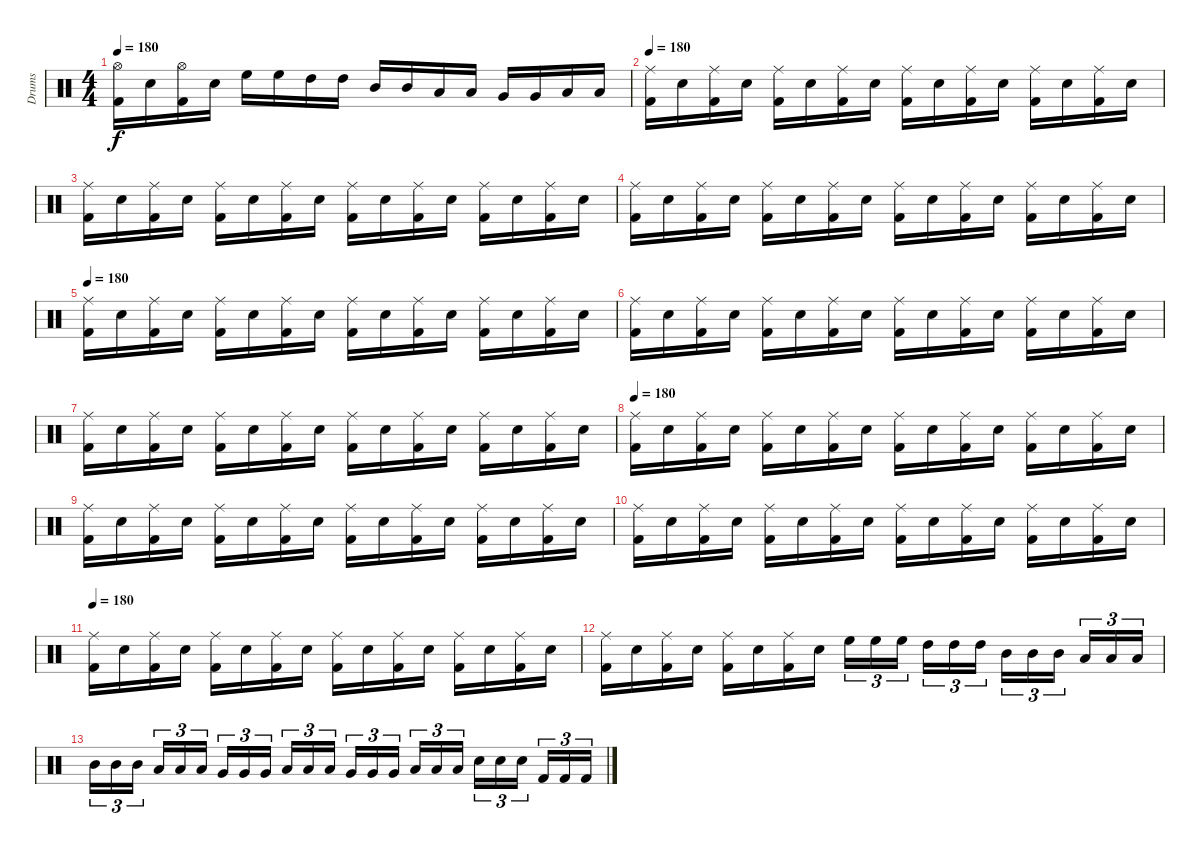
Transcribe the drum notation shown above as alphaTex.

\track ("Drums" "Drums") {instrument percussion}
\staff {score}
\articulation defaults
\ts (4 4)
\tempo 180
\clef neutral
\ks c
("Hi-Hat (open)" "Kick (hit) 2").16{dy f} "Electric Snare (hit)".16 ("Hi-Hat (open)" "Kick (hit) 2").16 "Electric Snare (hit)".16 "High Floor Tom (hit)".16 "High Floor Tom (hit)".16 "High Tom (hit)".16 "High Tom (hit)".16 "Mid Tom (hit)".16 "Mid Tom (hit)".16 "Low Tom (hit)".16 "Low Tom (hit)".16 "Very Low Tom (hit)".16 "Very Low Tom (hit)".16 "Low Floor Tom (hit)".16 "Low Floor Tom (hit)".16 |
\tempo 180
("Ride (middle)" "Kick (hit) 2").16 "Electric Snare (hit)".16 ("Ride (middle)" "Kick (hit) 2").16 "Electric Snare (hit)".16 ("Ride (middle)" "Kick (hit) 2").16 "Electric Snare (hit)".16 ("Ride (middle)" "Kick (hit) 2").16 "Electric Snare (hit)".16 ("Ride (middle)" "Kick (hit) 2").16 "Electric Snare (hit)".16 ("Ride (middle)" "Kick (hit) 2").16 "Electric Snare (hit)".16 ("Ride (middle)" "Kick (hit) 2").16 "Electric Snare (hit)".16 ("Ride (middle)" "Kick (hit) 2").16 "Electric Snare (hit)".16 |
("Ride (middle)" "Kick (hit) 2").16 "Electric Snare (hit)".16 ("Ride (middle)" "Kick (hit) 2").16 "Electric Snare (hit)".16 ("Ride (middle)" "Kick (hit) 2").16 "Electric Snare (hit)".16 ("Ride (middle)" "Kick (hit) 2").16 "Electric Snare (hit)".16 ("Ride (middle)" "Kick (hit) 2").16 "Electric Snare (hit)".16 ("Ride (middle)" "Kick (hit) 2").16 "Electric Snare (hit)".16 ("Ride (middle)" "Kick (hit) 2").16 "Electric Snare (hit)".16 ("Ride (middle)" "Kick (hit) 2").16 "Electric Snare (hit)".16 |
("Ride (middle)" "Kick (hit) 2").16 "Electric Snare (hit)".16 ("Ride (middle)" "Kick (hit) 2").16 "Electric Snare (hit)".16 ("Ride (middle)" "Kick (hit) 2").16 "Electric Snare (hit)".16 ("Ride (middle)" "Kick (hit) 2").16 "Electric Snare (hit)".16 ("Ride (middle)" "Kick (hit) 2").16 "Electric Snare (hit)".16 ("Ride (middle)" "Kick (hit) 2").16 "Electric Snare (hit)".16 ("Ride (middle)" "Kick (hit) 2").16 "Electric Snare (hit)".16 ("Ride (middle)" "Kick (hit) 2").16 "Electric Snare (hit)".16 |
\tempo 180
("Ride (middle)" "Kick (hit) 2").16 "Electric Snare (hit)".16 ("Ride (middle)" "Kick (hit) 2").16 "Electric Snare (hit)".16 ("Ride (middle)" "Kick (hit) 2").16 "Electric Snare (hit)".16 ("Ride (middle)" "Kick (hit) 2").16 "Electric Snare (hit)".16 ("Ride (middle)" "Kick (hit) 2").16 "Electric Snare (hit)".16 ("Ride (middle)" "Kick (hit) 2").16 "Electric Snare (hit)".16 ("Ride (middle)" "Kick (hit) 2").16 "Electric Snare (hit)".16 ("Ride (middle)" "Kick (hit) 2").16 "Electric Snare (hit)".16 |
("Ride (middle)" "Kick (hit) 2").16 "Electric Snare (hit)".16 ("Ride (middle)" "Kick (hit) 2").16 "Electric Snare (hit)".16 ("Ride (middle)" "Kick (hit) 2").16 "Electric Snare (hit)".16 ("Ride (middle)" "Kick (hit) 2").16 "Electric Snare (hit)".16 ("Ride (middle)" "Kick (hit) 2").16 "Electric Snare (hit)".16 ("Ride (middle)" "Kick (hit) 2").16 "Electric Snare (hit)".16 ("Ride (middle)" "Kick (hit) 2").16 "Electric Snare (hit)".16 ("Ride (middle)" "Kick (hit) 2").16 "Electric Snare (hit)".16 |
("Ride (middle)" "Kick (hit) 2").16 "Electric Snare (hit)".16 ("Ride (middle)" "Kick (hit) 2").16 "Electric Snare (hit)".16 ("Ride (middle)" "Kick (hit) 2").16 "Electric Snare (hit)".16 ("Ride (middle)" "Kick (hit) 2").16 "Electric Snare (hit)".16 ("Ride (middle)" "Kick (hit) 2").16 "Electric Snare (hit)".16 ("Ride (middle)" "Kick (hit) 2").16 "Electric Snare (hit)".16 ("Ride (middle)" "Kick (hit) 2").16 "Electric Snare (hit)".16 ("Ride (middle)" "Kick (hit) 2").16 "Electric Snare (hit)".16 |
\tempo 180
("Ride (middle)" "Kick (hit) 2").16 "Electric Snare (hit)".16 ("Ride (middle)" "Kick (hit) 2").16 "Electric Snare (hit)".16 ("Ride (middle)" "Kick (hit) 2").16 "Electric Snare (hit)".16 ("Ride (middle)" "Kick (hit) 2").16 "Electric Snare (hit)".16 ("Ride (middle)" "Kick (hit) 2").16 "Electric Snare (hit)".16 ("Ride (middle)" "Kick (hit) 2").16 "Electric Snare (hit)".16 ("Ride (middle)" "Kick (hit) 2").16 "Electric Snare (hit)".16 ("Ride (middle)" "Kick (hit) 2").16 "Electric Snare (hit)".16 |
("Ride (middle)" "Kick (hit) 2").16 "Electric Snare (hit)".16 ("Ride (middle)" "Kick (hit) 2").16 "Electric Snare (hit)".16 ("Ride (middle)" "Kick (hit) 2").16 "Electric Snare (hit)".16 ("Ride (middle)" "Kick (hit) 2").16 "Electric Snare (hit)".16 ("Ride (middle)" "Kick (hit) 2").16 "Electric Snare (hit)".16 ("Ride (middle)" "Kick (hit) 2").16 "Electric Snare (hit)".16 ("Ride (middle)" "Kick (hit) 2").16 "Electric Snare (hit)".16 ("Ride (middle)" "Kick (hit) 2").16 "Electric Snare (hit)".16 |
("Ride (middle)" "Kick (hit) 2").16 "Electric Snare (hit)".16 ("Ride (middle)" "Kick (hit) 2").16 "Electric Snare (hit)".16 ("Ride (middle)" "Kick (hit) 2").16 "Electric Snare (hit)".16 ("Ride (middle)" "Kick (hit) 2").16 "Electric Snare (hit)".16 ("Ride (middle)" "Kick (hit) 2").16 "Electric Snare (hit)".16 ("Ride (middle)" "Kick (hit) 2").16 "Electric Snare (hit)".16 ("Ride (middle)" "Kick (hit) 2").16 "Electric Snare (hit)".16 ("Ride (middle)" "Kick (hit) 2").16 "Electric Snare (hit)".16 |
\tempo 180
("Ride (middle)" "Kick (hit) 2").16 "Electric Snare (hit)".16 ("Ride (middle)" "Kick (hit) 2").16 "Electric Snare (hit)".16 ("Ride (middle)" "Kick (hit) 2").16 "Electric Snare (hit)".16 ("Ride (middle)" "Kick (hit) 2").16 "Electric Snare (hit)".16 ("Ride (middle)" "Kick (hit) 2").16 "Electric Snare (hit)".16 ("Ride (middle)" "Kick (hit) 2").16 "Electric Snare (hit)".16 ("Ride (middle)" "Kick (hit) 2").16 "Electric Snare (hit)".16 ("Ride (middle)" "Kick (hit) 2").16 "Electric Snare (hit)".16 |
("Ride (middle)" "Kick (hit) 2").16 "Electric Snare (hit)".16 ("Ride (middle)" "Kick (hit) 2").16 "Electric Snare (hit)".16 ("Ride (middle)" "Kick (hit) 2").16 "Electric Snare (hit)".16 ("Ride (middle)" "Kick (hit) 2").16 "Electric Snare (hit)".16 "High Floor Tom (hit)".16{tu (3 2)} "High Floor Tom (hit)".16{tu (3 2)} "High Floor Tom (hit)".16{tu (3 2) beam splitsecondary} "High Tom (hit)".16{tu (3 2)} "High Tom (hit)".16{tu (3 2)} "High Tom (hit)".16{tu (3 2)} "Mid Tom (hit)".16{tu (3 2)} "Mid Tom (hit)".16{tu (3 2)} "Mid Tom (hit)".16{tu (3 2) beam splitsecondary} "Low Tom (hit)".16{tu (3 2)} "Low Tom (hit)".16{tu (3 2)} "Low Tom (hit)".16{tu (3 2)} |
"Mid Tom (hit)".16{tu (3 2)} "Mid Tom (hit)".16{tu (3 2)} "Mid Tom (hit)".16{tu (3 2) beam splitsecondary} "Low Tom (hit)".16{tu (3 2)} "Low Tom (hit)".16{tu (3 2)} "Low Tom (hit)".16{tu (3 2)} "Very Low Tom (hit)".16{tu (3 2)} "Very Low Tom (hit)".16{tu (3 2)} "Very Low Tom (hit)".16{tu (3 2) beam splitsecondary} "Low Floor Tom (hit)".16{tu (3 2)} "Low Floor Tom (hit)".16{tu (3 2)} "Low Floor Tom (hit)".16{tu (3 2)} "Very Low Tom (hit)".16{tu (3 2)} "Very Low Tom (hit)".16{tu (3 2)} "Very Low Tom (hit)".16{tu (3 2) beam splitsecondary} "Low Floor Tom (hit)".16{tu (3 2)} "Low Floor Tom (hit)".16{tu (3 2)} "Low Floor Tom (hit)".16{tu (3 2)} "Electric Snare (hit)".16{tu (3 2)} "Electric Snare (hit)".16{tu (3 2)} "Electric Snare (hit)".16{tu (3 2) beam splitsecondary} "Kick (hit) 2".16{tu (3 2)} "Kick (hit) 2".16{tu (3 2)} "Kick (hit) 2".16{tu (3 2)}
